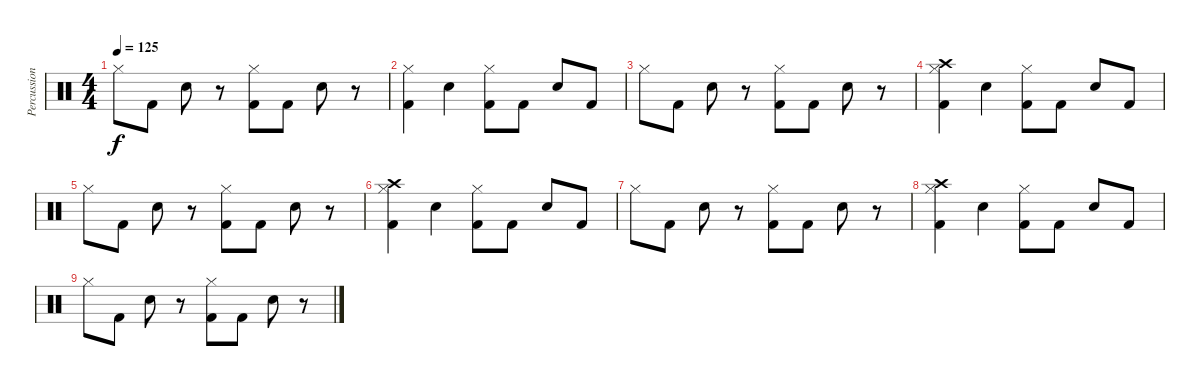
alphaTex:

\track ("Percussions" "Percussion") {instrument percussion}
\staff {score}
\articulation defaults
\ts (4 4)
\tempo 125
\clef neutral
\ks c "Hi-Hat (closed)".8{dy f} "Kick (hit) 2".8 "Snare (hit) 2".8
r.8 ("Hi-Hat (closed)" "Kick (hit) 2").8 "Kick (hit) 2".8 "Snare (hit) 2".8 r.8 |
("Hi-Hat (closed)" "Kick (hit) 2").4{volume 5} "Snare (hit) 2".4 ("Hi-Hat (closed)" "Kick (hit) 2").8 "Kick (hit) 2".8 "Snare (hit) 2".8 "Kick (hit) 2".8 |
"Hi-Hat (closed)".8 "Kick (hit) 2".8 "Snare (hit) 2".8 r.8 ("Hi-Hat (closed)" "Kick (hit) 2").8 "Kick (hit) 2".8 "Snare (hit) 2".8 r.8 |
("Crash high (hit)" "Hi-Hat (closed)" "Kick (hit) 2").4 "Snare (hit) 2".4 ("Hi-Hat (closed)" "Kick (hit) 2").8 "Kick (hit) 2".8 "Snare (hit) 2".8 "Kick (hit) 2".8 |
"Hi-Hat (closed)".8 "Kick (hit) 2".8 "Snare (hit) 2".8 r.8 ("Hi-Hat (closed)" "Kick (hit) 2").8 "Kick (hit) 2".8 "Snare (hit) 2".8 r.8 |
("Crash high (hit)" "Hi-Hat (closed)" "Kick (hit) 2").4 "Snare (hit) 2".4 ("Hi-Hat (closed)" "Kick (hit) 2").8 "Kick (hit) 2".8 "Snare (hit) 2".8 "Kick (hit) 2".8 |
"Hi-Hat (closed)".8{volume 0} "Kick (hit) 2".8 "Snare (hit) 2".8 r.8 ("Hi-Hat (closed)" "Kick (hit) 2").8 "Kick (hit) 2".8 "Snare (hit) 2".8 r.8 |
("Crash high (hit)" "Hi-Hat (closed)" "Kick (hit) 2").4 "Snare (hit) 2".4 ("Hi-Hat (closed)" "Kick (hit) 2").8 "Kick (hit) 2".8 "Snare (hit) 2".8 "Kick (hit) 2".8 |
"Hi-Hat (closed)".8 "Kick (hit) 2".8 "Snare (hit) 2".8 r.8 ("Hi-Hat (closed)" "Kick (hit) 2").8 "Kick (hit) 2".8 "Snare (hit) 2".8 r.8
